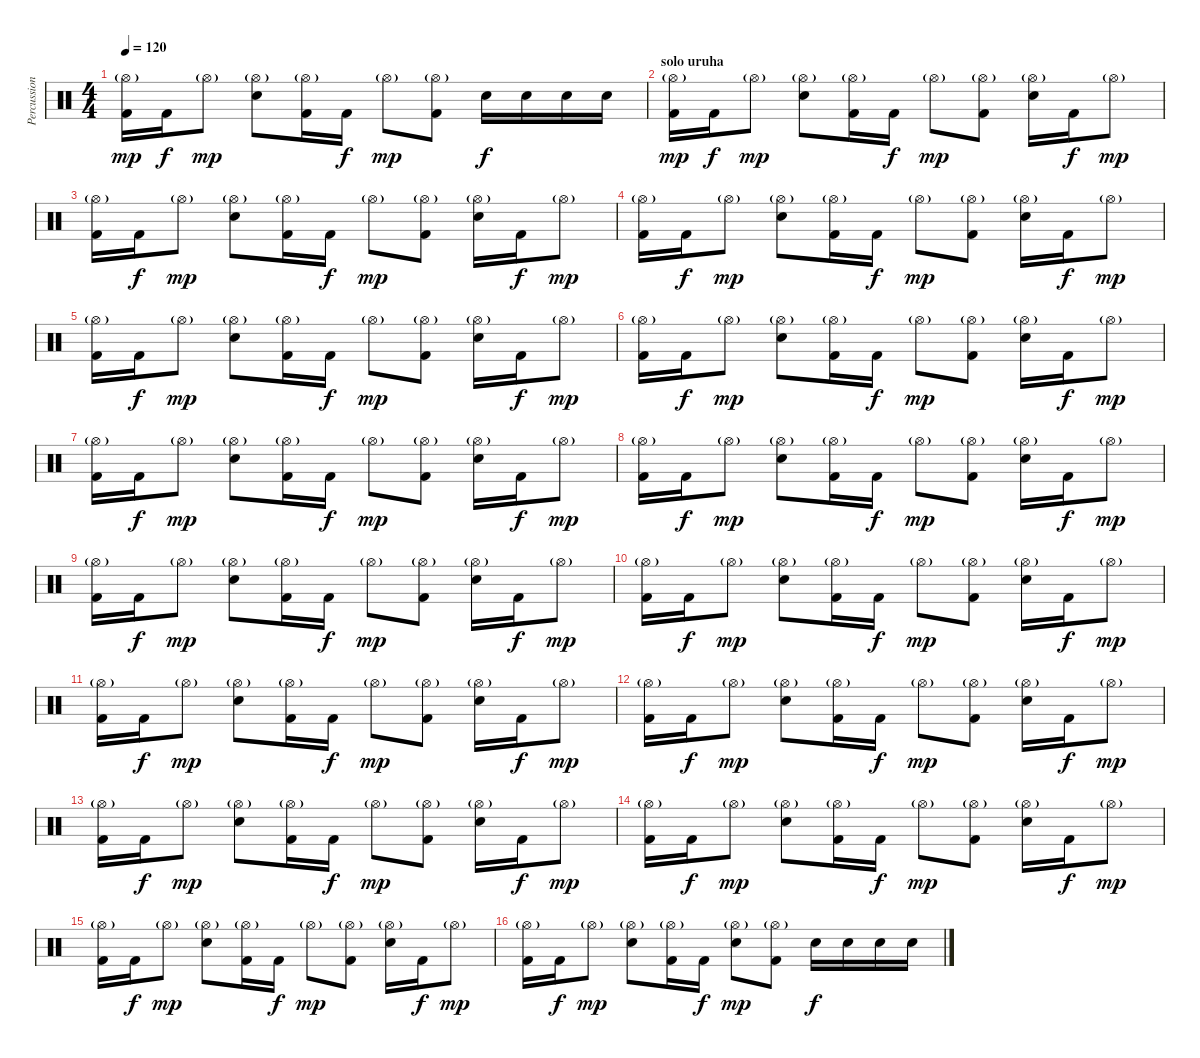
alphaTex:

\track ("Percussion" "Percussion") {instrument percussion}
\staff {score}
\articulation defaults
\ts (4 4)
\tempo 120
\clef neutral
\ks c
("Hi-Hat (open)"{g} "Kick (hit) 2").16{dy mp} "Kick (hit) 2".16{dy f} "Hi-Hat (open)"{g}.8{dy mp} ("Hi-Hat (open)"{g} "Snare (hit) 2").8 ("Hi-Hat (open)"{g} "Kick (hit) 2").16 "Kick (hit) 2".16{dy f} "Hi-Hat (open)"{g}.8{dy mp} ("Hi-Hat (open)"{g} "Kick (hit) 2").8 "Snare (hit) 2".16{dy f} "Snare (hit) 2".16 "Snare (hit) 2".16 "Snare (hit) 2".16 |
\section ("" "solo uruha")
("Hi-Hat (open)"{g} "Kick (hit) 2").16{dy mp} "Kick (hit) 2".16{dy f} "Hi-Hat (open)"{g}.8{dy mp} ("Hi-Hat (open)"{g} "Snare (hit) 2").8 ("Hi-Hat (open)"{g} "Kick (hit) 2").16 "Kick (hit) 2".16{dy f} "Hi-Hat (open)"{g}.8{dy mp} ("Hi-Hat (open)"{g} "Kick (hit) 2").8 ("Hi-Hat (open)"{g} "Snare (hit) 2").16 "Kick (hit) 2".16{dy f} "Hi-Hat (open)"{g}.8{dy mp} |
("Hi-Hat (open)"{g} "Kick (hit) 2").16 "Kick (hit) 2".16{dy f} "Hi-Hat (open)"{g}.8{dy mp} ("Hi-Hat (open)"{g} "Snare (hit) 2").8 ("Hi-Hat (open)"{g} "Kick (hit) 2").16 "Kick (hit) 2".16{dy f} "Hi-Hat (open)"{g}.8{dy mp} ("Hi-Hat (open)"{g} "Kick (hit) 2").8 ("Hi-Hat (open)"{g} "Snare (hit) 2").16 "Kick (hit) 2".16{dy f} "Hi-Hat (open)"{g}.8{dy mp} |
("Hi-Hat (open)"{g} "Kick (hit) 2").16 "Kick (hit) 2".16{dy f} "Hi-Hat (open)"{g}.8{dy mp} ("Hi-Hat (open)"{g} "Snare (hit) 2").8 ("Hi-Hat (open)"{g} "Kick (hit) 2").16 "Kick (hit) 2".16{dy f} "Hi-Hat (open)"{g}.8{dy mp} ("Hi-Hat (open)"{g} "Kick (hit) 2").8 ("Hi-Hat (open)"{g} "Snare (hit) 2").16 "Kick (hit) 2".16{dy f} "Hi-Hat (open)"{g}.8{dy mp} |
("Hi-Hat (open)"{g} "Kick (hit) 2").16 "Kick (hit) 2".16{dy f} "Hi-Hat (open)"{g}.8{dy mp} ("Hi-Hat (open)"{g} "Snare (hit) 2").8 ("Hi-Hat (open)"{g} "Kick (hit) 2").16 "Kick (hit) 2".16{dy f} "Hi-Hat (open)"{g}.8{dy mp} ("Hi-Hat (open)"{g} "Kick (hit) 2").8 ("Hi-Hat (open)"{g} "Snare (hit) 2").16 "Kick (hit) 2".16{dy f} "Hi-Hat (open)"{g}.8{dy mp} |
("Hi-Hat (open)"{g} "Kick (hit) 2").16 "Kick (hit) 2".16{dy f} "Hi-Hat (open)"{g}.8{dy mp} ("Hi-Hat (open)"{g} "Snare (hit) 2").8 ("Hi-Hat (open)"{g} "Kick (hit) 2").16 "Kick (hit) 2".16{dy f} "Hi-Hat (open)"{g}.8{dy mp} ("Hi-Hat (open)"{g} "Kick (hit) 2").8 ("Hi-Hat (open)"{g} "Snare (hit) 2").16 "Kick (hit) 2".16{dy f} "Hi-Hat (open)"{g}.8{dy mp} |
("Hi-Hat (open)"{g} "Kick (hit) 2").16 "Kick (hit) 2".16{dy f} "Hi-Hat (open)"{g}.8{dy mp} ("Hi-Hat (open)"{g} "Snare (hit) 2").8 ("Hi-Hat (open)"{g} "Kick (hit) 2").16 "Kick (hit) 2".16{dy f} "Hi-Hat (open)"{g}.8{dy mp} ("Hi-Hat (open)"{g} "Kick (hit) 2").8 ("Hi-Hat (open)"{g} "Snare (hit) 2").16 "Kick (hit) 2".16{dy f} "Hi-Hat (open)"{g}.8{dy mp} |
("Hi-Hat (open)"{g} "Kick (hit) 2").16 "Kick (hit) 2".16{dy f} "Hi-Hat (open)"{g}.8{dy mp} ("Hi-Hat (open)"{g} "Snare (hit) 2").8 ("Hi-Hat (open)"{g} "Kick (hit) 2").16 "Kick (hit) 2".16{dy f} "Hi-Hat (open)"{g}.8{dy mp} ("Hi-Hat (open)"{g} "Kick (hit) 2").8 ("Hi-Hat (open)"{g} "Snare (hit) 2").16 "Kick (hit) 2".16{dy f} "Hi-Hat (open)"{g}.8{dy mp} |
("Hi-Hat (open)"{g} "Kick (hit) 2").16 "Kick (hit) 2".16{dy f} "Hi-Hat (open)"{g}.8{dy mp} ("Hi-Hat (open)"{g} "Snare (hit) 2").8 ("Hi-Hat (open)"{g} "Kick (hit) 2").16 "Kick (hit) 2".16{dy f} "Hi-Hat (open)"{g}.8{dy mp} ("Hi-Hat (open)"{g} "Kick (hit) 2").8 ("Hi-Hat (open)"{g} "Snare (hit) 2").16 "Kick (hit) 2".16{dy f} "Hi-Hat (open)"{g}.8{dy mp} |
("Hi-Hat (open)"{g} "Kick (hit) 2").16 "Kick (hit) 2".16{dy f} "Hi-Hat (open)"{g}.8{dy mp} ("Hi-Hat (open)"{g} "Snare (hit) 2").8 ("Hi-Hat (open)"{g} "Kick (hit) 2").16 "Kick (hit) 2".16{dy f} "Hi-Hat (open)"{g}.8{dy mp} ("Hi-Hat (open)"{g} "Kick (hit) 2").8 ("Hi-Hat (open)"{g} "Snare (hit) 2").16 "Kick (hit) 2".16{dy f} "Hi-Hat (open)"{g}.8{dy mp} |
("Hi-Hat (open)"{g} "Kick (hit) 2").16 "Kick (hit) 2".16{dy f} "Hi-Hat (open)"{g}.8{dy mp} ("Hi-Hat (open)"{g} "Snare (hit) 2").8 ("Hi-Hat (open)"{g} "Kick (hit) 2").16 "Kick (hit) 2".16{dy f} "Hi-Hat (open)"{g}.8{dy mp} ("Hi-Hat (open)"{g} "Kick (hit) 2").8 ("Hi-Hat (open)"{g} "Snare (hit) 2").16 "Kick (hit) 2".16{dy f} "Hi-Hat (open)"{g}.8{dy mp} |
("Hi-Hat (open)"{g} "Kick (hit) 2").16 "Kick (hit) 2".16{dy f} "Hi-Hat (open)"{g}.8{dy mp} ("Hi-Hat (open)"{g} "Snare (hit) 2").8 ("Hi-Hat (open)"{g} "Kick (hit) 2").16 "Kick (hit) 2".16{dy f} "Hi-Hat (open)"{g}.8{dy mp} ("Hi-Hat (open)"{g} "Kick (hit) 2").8 ("Hi-Hat (open)"{g} "Snare (hit) 2").16 "Kick (hit) 2".16{dy f} "Hi-Hat (open)"{g}.8{dy mp} |
("Hi-Hat (open)"{g} "Kick (hit) 2").16 "Kick (hit) 2".16{dy f} "Hi-Hat (open)"{g}.8{dy mp} ("Hi-Hat (open)"{g} "Snare (hit) 2").8 ("Hi-Hat (open)"{g} "Kick (hit) 2").16 "Kick (hit) 2".16{dy f} "Hi-Hat (open)"{g}.8{dy mp} ("Hi-Hat (open)"{g} "Kick (hit) 2").8 ("Hi-Hat (open)"{g} "Snare (hit) 2").16 "Kick (hit) 2".16{dy f} "Hi-Hat (open)"{g}.8{dy mp} |
("Hi-Hat (open)"{g} "Kick (hit) 2").16 "Kick (hit) 2".16{dy f} "Hi-Hat (open)"{g}.8{dy mp} ("Hi-Hat (open)"{g} "Snare (hit) 2").8 ("Hi-Hat (open)"{g} "Kick (hit) 2").16 "Kick (hit) 2".16{dy f} "Hi-Hat (open)"{g}.8{dy mp} ("Hi-Hat (open)"{g} "Kick (hit) 2").8 ("Hi-Hat (open)"{g} "Snare (hit) 2").16 "Kick (hit) 2".16{dy f} "Hi-Hat (open)"{g}.8{dy mp} |
("Hi-Hat (open)"{g} "Kick (hit) 2").16 "Kick (hit) 2".16{dy f} "Hi-Hat (open)"{g}.8{dy mp} ("Hi-Hat (open)"{g} "Snare (hit) 2").8 ("Hi-Hat (open)"{g} "Kick (hit) 2").16 "Kick (hit) 2".16{dy f} "Hi-Hat (open)"{g}.8{dy mp} ("Hi-Hat (open)"{g} "Kick (hit) 2").8 ("Hi-Hat (open)"{g} "Snare (hit) 2").16 "Kick (hit) 2".16{dy f} "Hi-Hat (open)"{g}.8{dy mp} |
("Hi-Hat (open)"{g} "Kick (hit) 2").16 "Kick (hit) 2".16{dy f} "Hi-Hat (open)"{g}.8{dy mp} ("Hi-Hat (open)"{g} "Snare (hit) 2").8 ("Hi-Hat (open)"{g} "Kick (hit) 2").16 "Kick (hit) 2".16{dy f} ("Hi-Hat (open)"{g} "Snare (hit) 2").8{dy mp} ("Hi-Hat (open)"{g} "Kick (hit) 2").8 "Snare (hit) 2".16{dy f} "Snare (hit) 2".16 "Snare (hit) 2".16 "Snare (hit) 2".16
